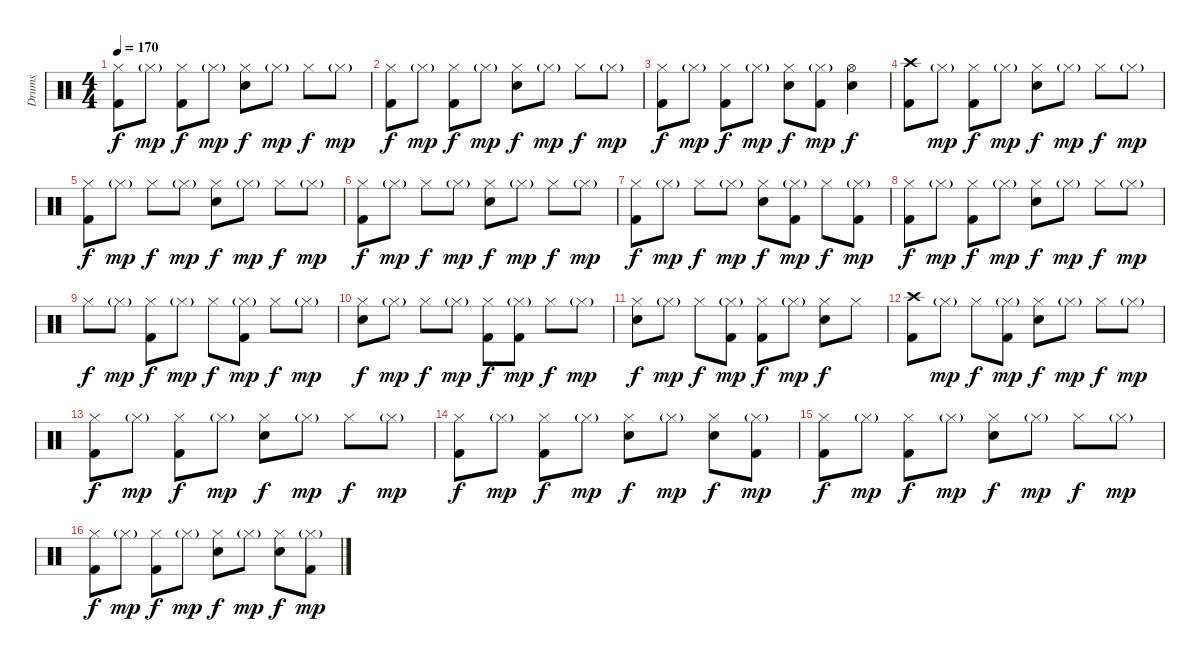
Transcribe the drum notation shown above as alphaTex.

\track ("Drums" "Drums") {instrument percussion}
\staff {score}
\articulation defaults
\ts (4 4)
\tempo 170
\clef neutral
\ks c
("Hi-Hat (closed)" "Kick (hit) 2").8{dy f} "Hi-Hat (closed)"{g}.8{dy mp} ("Hi-Hat (closed)" "Kick (hit) 2").8{dy f} "Hi-Hat (closed)"{g}.8{dy mp} ("Hi-Hat (closed)" "Snare (hit) 2").8{dy f} "Hi-Hat (closed)"{g}.8{dy mp} "Hi-Hat (closed)".8{dy f} "Hi-Hat (closed)"{g}.8{dy mp} |
("Hi-Hat (closed)" "Kick (hit) 2").8{dy f} "Hi-Hat (closed)"{g}.8{dy mp} ("Hi-Hat (closed)" "Kick (hit) 2").8{dy f} "Hi-Hat (closed)"{g}.8{dy mp} ("Hi-Hat (closed)" "Snare (hit) 2").8{dy f} "Hi-Hat (closed)"{g}.8{dy mp} "Hi-Hat (closed)".8{dy f} "Hi-Hat (closed)"{g}.8{dy mp} |
("Hi-Hat (closed)" "Kick (hit) 2").8{dy f} "Hi-Hat (closed)"{g}.8{dy mp} ("Hi-Hat (closed)" "Kick (hit) 2").8{dy f} "Hi-Hat (closed)"{g}.8{dy mp} ("Hi-Hat (closed)" "Snare (hit) 2").8{dy f} ("Hi-Hat (closed)"{g} "Kick (hit) 2").8{dy mp} ("Hi-Hat (open)" "Snare (hit) 2").4{dy f} |
("Crash high (hit)" "Kick (hit) 2").8 "Hi-Hat (closed)"{g}.8{dy mp} ("Hi-Hat (closed)" "Kick (hit) 2").8{dy f} "Hi-Hat (closed)"{g}.8{dy mp} ("Hi-Hat (closed)" "Snare (hit) 2").8{dy f} "Hi-Hat (closed)"{g}.8{dy mp} "Hi-Hat (closed)".8{dy f} "Hi-Hat (closed)"{g}.8{dy mp} |
("Hi-Hat (closed)" "Kick (hit) 2").8{dy f} "Hi-Hat (closed)"{g}.8{dy mp} "Hi-Hat (closed)".8{dy f} "Hi-Hat (closed)"{g}.8{dy mp} ("Hi-Hat (closed)" "Snare (hit) 2").8{dy f} "Hi-Hat (closed)"{g}.8{dy mp} "Hi-Hat (closed)".8{dy f} "Hi-Hat (closed)"{g}.8{dy mp} |
("Hi-Hat (closed)" "Kick (hit) 2").8{dy f} "Hi-Hat (closed)"{g}.8{dy mp} "Hi-Hat (closed)".8{dy f} "Hi-Hat (closed)"{g}.8{dy mp} ("Hi-Hat (closed)" "Snare (hit) 2").8{dy f} "Hi-Hat (closed)"{g}.8{dy mp} "Hi-Hat (closed)".8{dy f} "Hi-Hat (closed)"{g}.8{dy mp} |
("Hi-Hat (closed)" "Kick (hit) 2").8{dy f} "Hi-Hat (closed)"{g}.8{dy mp} "Hi-Hat (closed)".8{dy f} "Hi-Hat (closed)"{g}.8{dy mp} ("Hi-Hat (closed)" "Snare (hit) 2").8{dy f} ("Hi-Hat (closed)"{g} "Kick (hit) 2").8{dy mp} "Hi-Hat (closed)".8{dy f} ("Hi-Hat (closed)"{g} "Kick (hit) 2").8{dy mp} |
("Hi-Hat (closed)" "Kick (hit) 2").8{dy f} "Hi-Hat (closed)"{g}.8{dy mp} ("Hi-Hat (closed)" "Kick (hit) 2").8{dy f} "Hi-Hat (closed)"{g}.8{dy mp} ("Hi-Hat (closed)" "Snare (hit) 2").8{dy f} "Hi-Hat (closed)"{g}.8{dy mp} "Hi-Hat (closed)".8{dy f} "Hi-Hat (closed)"{g}.8{dy mp} |
"Hi-Hat (closed)".8{dy f} "Hi-Hat (closed)"{g}.8{dy mp} ("Hi-Hat (closed)" "Kick (hit) 2").8{dy f} "Hi-Hat (closed)"{g}.8{dy mp} "Hi-Hat (closed)".8{dy f} ("Hi-Hat (closed)"{g} "Kick (hit) 2").8{dy mp} "Hi-Hat (closed)".8{dy f} "Hi-Hat (closed)"{g}.8{dy mp} |
("Hi-Hat (closed)" "Snare (hit) 2").8{dy f} "Hi-Hat (closed)"{g}.8{dy mp} "Hi-Hat (closed)".8{dy f} "Hi-Hat (closed)"{g}.8{dy mp} ("Hi-Hat (closed)" "Kick (hit) 2").8{dy f} ("Hi-Hat (closed)"{g} "Kick (hit) 2").8{dy mp} "Hi-Hat (closed)".8{dy f} "Hi-Hat (closed)"{g}.8{dy mp} |
("Hi-Hat (closed)" "Snare (hit) 2").8{dy f} "Hi-Hat (closed)"{g}.8{dy mp} "Hi-Hat (closed)".8{dy f} ("Hi-Hat (closed)"{g} "Kick (hit) 2").8{dy mp} ("Hi-Hat (closed)" "Kick (hit) 2").8{dy f} "Hi-Hat (closed)"{g}.8{dy mp} ("Hi-Hat (closed)" "Snare (hit) 2").8{dy f} "Hi-Hat (closed)".8 |
("Crash high (hit)" "Kick (hit) 2").8 "Hi-Hat (closed)"{g}.8{dy mp} "Hi-Hat (closed)".8{dy f} ("Hi-Hat (closed)"{g} "Kick (hit) 2").8{dy mp} ("Hi-Hat (closed)" "Snare (hit) 2").8{dy f} "Hi-Hat (closed)"{g}.8{dy mp} "Hi-Hat (closed)".8{dy f} "Hi-Hat (closed)"{g}.8{dy mp} |
("Hi-Hat (closed)" "Kick (hit) 2").8{dy f} "Hi-Hat (closed)"{g}.8{dy mp} ("Hi-Hat (closed)" "Kick (hit) 2").8{dy f} "Hi-Hat (closed)"{g}.8{dy mp} ("Hi-Hat (closed)" "Snare (hit) 2").8{dy f} "Hi-Hat (closed)"{g}.8{dy mp} "Hi-Hat (closed)".8{dy f} "Hi-Hat (closed)"{g}.8{dy mp} |
("Hi-Hat (closed)" "Kick (hit) 2").8{dy f} "Hi-Hat (closed)"{g}.8{dy mp} ("Hi-Hat (closed)" "Kick (hit) 2").8{dy f} "Hi-Hat (closed)"{g}.8{dy mp} ("Hi-Hat (closed)" "Snare (hit) 2").8{dy f} "Hi-Hat (closed)"{g}.8{dy mp} ("Hi-Hat (closed)" "Snare (hit) 2").8{dy f} ("Hi-Hat (closed)"{g} "Kick (hit) 2").8{dy mp} |
("Hi-Hat (closed)" "Kick (hit) 2").8{dy f} "Hi-Hat (closed)"{g}.8{dy mp} ("Hi-Hat (closed)" "Kick (hit) 2").8{dy f} "Hi-Hat (closed)"{g}.8{dy mp} ("Hi-Hat (closed)" "Snare (hit) 2").8{dy f} "Hi-Hat (closed)"{g}.8{dy mp} "Hi-Hat (closed)".8{dy f} "Hi-Hat (closed)"{g}.8{dy mp} |
("Hi-Hat (closed)" "Kick (hit) 2").8{dy f} "Hi-Hat (closed)"{g}.8{dy mp} ("Hi-Hat (closed)" "Kick (hit) 2").8{dy f} "Hi-Hat (closed)"{g}.8{dy mp} ("Hi-Hat (closed)" "Snare (hit) 2").8{dy f} "Hi-Hat (closed)"{g}.8{dy mp} ("Hi-Hat (closed)" "Snare (hit) 2").8{dy f} ("Hi-Hat (closed)"{g} "Kick (hit) 2").8{dy mp}
